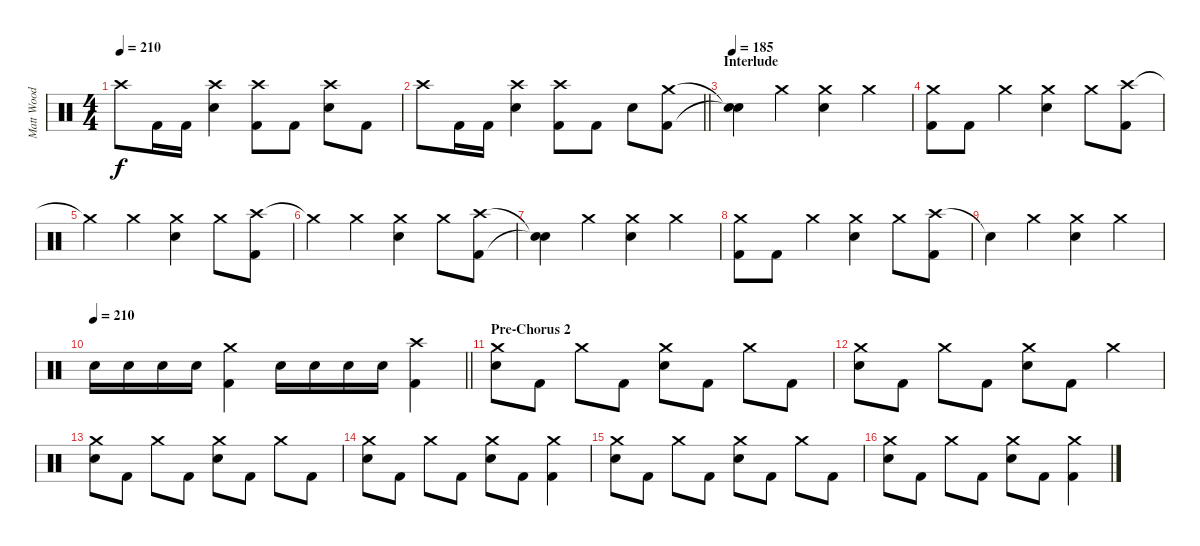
\track ("Matt Wood" "Matt Wood") {instrument percussion}
\staff {score}
\articulation defaults
\ts (4 4)
\tempo 210
\clef neutral
\ks c "Crash high (hit)".8{dy f} "Kick (hit) 2".16 "Kick (hit) 2".16
("Crash high (hit)" "Snare (hit) 2").4 ("Crash high (hit)" "Kick (hit) 2").8 "Kick (hit) 2".8 ("Crash high (hit)" "Snare (hit) 2").8 "Kick (hit) 2".8 |
\barLineRight lightlight "Crash high (hit)".8 "Kick (hit) 2".16 "Kick (hit) 2".16
("Crash high (hit)" "Snare (hit) 2").4 ("Crash high (hit)" "Kick (hit) 2").8 "Kick (hit) 2".8 "Snare (hit) 2".8 ("Crash medium (hit)" "Kick (hit) 2").8 |
\section ("" "Interlude")
\tempo 185
("Snare (hit)"{t} "Snare (hit)"{t}).4 "Crash medium (hit)".4 ("Crash medium (hit)" "Snare (hit) 2").4 "Crash medium (hit)".4 |
("Crash medium (hit)" "Kick (hit) 2").8 "Kick (hit) 2".8 "Crash medium (hit)".4 ("Crash medium (hit)" "Snare (hit) 2").4 "Crash medium (hit)".8 ("Crash high (hit)" "Kick (hit) 2").8 |
"Crash medium (hit)"{t}.4 "Crash medium (hit)".4 ("Crash medium (hit)" "Snare (hit) 2").4 "Crash medium (hit)".8 ("Crash high (hit)" "Kick (hit) 2").8 |
"Crash medium (hit)"{t}.4 "Crash medium (hit)".4 ("Crash medium (hit)" "Snare (hit) 2").4 "Crash medium (hit)".8 ("Crash high (hit)" "Kick (hit) 2").8 |
("Snare (hit)"{t} "Snare (hit)"{t}).4 "Crash medium (hit)".4 ("Crash medium (hit)" "Snare (hit) 2").4 "Crash medium (hit)".4 |
("Crash medium (hit)" "Kick (hit) 2").8 "Kick (hit) 2".8 "Crash medium (hit)".4 ("Crash medium (hit)" "Snare (hit) 2").4 "Crash medium (hit)".8 ("Crash high (hit)" "Kick (hit) 2").8 |
"Snare (hit)"{t}.4 "Crash medium (hit)".4 ("Crash medium (hit)" "Snare (hit) 2").4 "Crash medium (hit)".4 |
\tempo 210
\barLineRight lightlight "Snare (hit) 2".16 "Snare (hit) 2".16 "Snare (hit) 2".16 "Snare (hit) 2".16
("Crash medium (hit)" "Kick (hit) 2").4 "Snare (hit) 2".16 "Snare (hit) 2".16 "Snare (hit) 2".16 "Snare (hit) 2".16 ("Crash high (hit)" "Kick (hit) 2").4 |
\section ("" "Pre-Chorus 2")
("Crash medium (hit)" "Snare (hit) 2").8 "Kick (hit) 2".8 "Crash medium (hit)".8 "Kick (hit) 2".8 ("Crash medium (hit)" "Snare (hit) 2").8 "Kick (hit) 2".8 "Crash medium (hit)".8 "Kick (hit) 2".8 |
("Crash medium (hit)" "Snare (hit) 2").8 "Kick (hit) 2".8 "Crash medium (hit)".8 "Kick (hit) 2".8 ("Crash medium (hit)" "Snare (hit) 2").8 "Kick (hit) 2".8 "Crash medium (hit)".4 |
("Crash medium (hit)" "Snare (hit) 2").8 "Kick (hit) 2".8 "Crash medium (hit)".8 "Kick (hit) 2".8 ("Crash medium (hit)" "Snare (hit) 2").8 "Kick (hit) 2".8 "Crash medium (hit)".8 "Kick (hit) 2".8 |
("Crash medium (hit)" "Snare (hit) 2").8 "Kick (hit) 2".8 "Crash medium (hit)".8 "Kick (hit) 2".8 ("Crash medium (hit)" "Snare (hit) 2").8 "Kick (hit) 2".8 ("Crash medium (hit)" "Kick (hit) 2").4 |
("Crash medium (hit)" "Snare (hit) 2").8 "Kick (hit) 2".8 "Crash medium (hit)".8 "Kick (hit) 2".8 ("Crash medium (hit)" "Snare (hit) 2").8 "Kick (hit) 2".8 "Crash medium (hit)".8 "Kick (hit) 2".8 |
("Crash medium (hit)" "Snare (hit) 2").8 "Kick (hit) 2".8 "Crash medium (hit)".8 "Kick (hit) 2".8 ("Crash medium (hit)" "Snare (hit) 2").8 "Kick (hit) 2".8 ("Crash medium (hit)" "Kick (hit) 2").4
